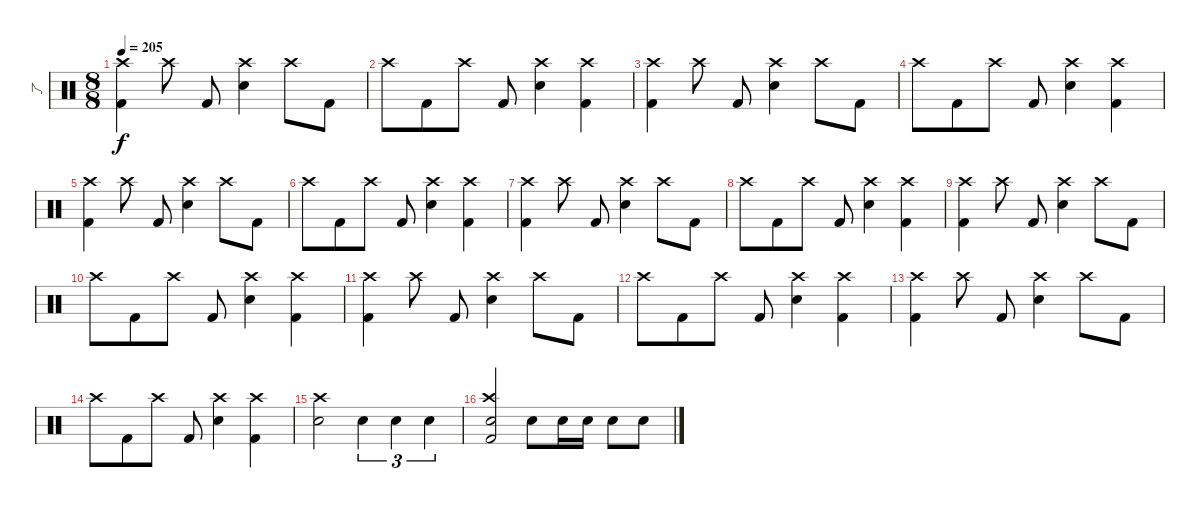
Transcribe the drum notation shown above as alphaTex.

\track ("了" "了") {instrument percussion}
\staff {score}
\articulation defaults
\ts (8 8)
\tempo 205
\clef neutral
\ks c
("Kick (hit) 2" "Crash high (hit)").4{dy f} "Crash high (hit)".8 "Kick (hit) 2".8 ("Snare (hit) 2" "Crash high (hit)").4 "Crash high (hit)".8 "Kick (hit) 2".8 |
"Crash high (hit)".8 "Kick (hit) 2".8 "Crash high (hit)".8 "Kick (hit) 2".8 ("Snare (hit) 2" "Crash high (hit)").4 ("Kick (hit) 2" "Crash high (hit)").4 |
("Kick (hit) 2" "Crash high (hit)").4 "Crash high (hit)".8 "Kick (hit) 2".8 ("Snare (hit) 2" "Crash high (hit)").4 "Crash high (hit)".8 "Kick (hit) 2".8 |
"Crash high (hit)".8 "Kick (hit) 2".8 "Crash high (hit)".8 "Kick (hit) 2".8 ("Snare (hit) 2" "Crash high (hit)").4 ("Kick (hit) 2" "Crash high (hit)").4 |
("Kick (hit) 2" "Crash high (hit)").4 "Crash high (hit)".8 "Kick (hit) 2".8 ("Snare (hit) 2" "Crash high (hit)").4 "Crash high (hit)".8 "Kick (hit) 2".8 |
"Crash high (hit)".8 "Kick (hit) 2".8 "Crash high (hit)".8 "Kick (hit) 2".8 ("Snare (hit) 2" "Crash high (hit)").4 ("Kick (hit) 2" "Crash high (hit)").4 |
("Kick (hit) 2" "Crash high (hit)").4 "Crash high (hit)".8 "Kick (hit) 2".8 ("Snare (hit) 2" "Crash high (hit)").4 "Crash high (hit)".8 "Kick (hit) 2".8 |
"Crash high (hit)".8 "Kick (hit) 2".8 "Crash high (hit)".8 "Kick (hit) 2".8 ("Snare (hit) 2" "Crash high (hit)").4 ("Kick (hit) 2" "Crash high (hit)").4 |
("Kick (hit) 2" "Crash high (hit)").4 "Crash high (hit)".8 "Kick (hit) 2".8 ("Snare (hit) 2" "Crash high (hit)").4 "Crash high (hit)".8 "Kick (hit) 2".8 |
"Crash high (hit)".8 "Kick (hit) 2".8 "Crash high (hit)".8 "Kick (hit) 2".8 ("Snare (hit) 2" "Crash high (hit)").4 ("Kick (hit) 2" "Crash high (hit)").4 |
("Kick (hit) 2" "Crash high (hit)").4 "Crash high (hit)".8 "Kick (hit) 2".8 ("Snare (hit) 2" "Crash high (hit)").4 "Crash high (hit)".8 "Kick (hit) 2".8 |
"Crash high (hit)".8 "Kick (hit) 2".8 "Crash high (hit)".8 "Kick (hit) 2".8 ("Snare (hit) 2" "Crash high (hit)").4 ("Kick (hit) 2" "Crash high (hit)").4 |
("Kick (hit) 2" "Crash high (hit)").4 "Crash high (hit)".8 "Kick (hit) 2".8 ("Snare (hit) 2" "Crash high (hit)").4 "Crash high (hit)".8 "Kick (hit) 2".8 |
"Crash high (hit)".8 "Kick (hit) 2".8 "Crash high (hit)".8 "Kick (hit) 2".8 ("Snare (hit) 2" "Crash high (hit)").4 ("Kick (hit) 2" "Crash high (hit)").4 |
("Snare (hit) 2" "Crash high (hit)").2 "Snare (hit) 2".4{tu (3 2)} "Snare (hit) 2".4{tu (3 2)} "Snare (hit) 2".4{tu (3 2)} |
("Crash high (hit)" "Kick (hit) 2" "Snare (hit) 2").2 "Snare (hit) 2".8 "Snare (hit) 2".16 "Snare (hit) 2".16 "Snare (hit) 2".8 "Snare (hit) 2".8
